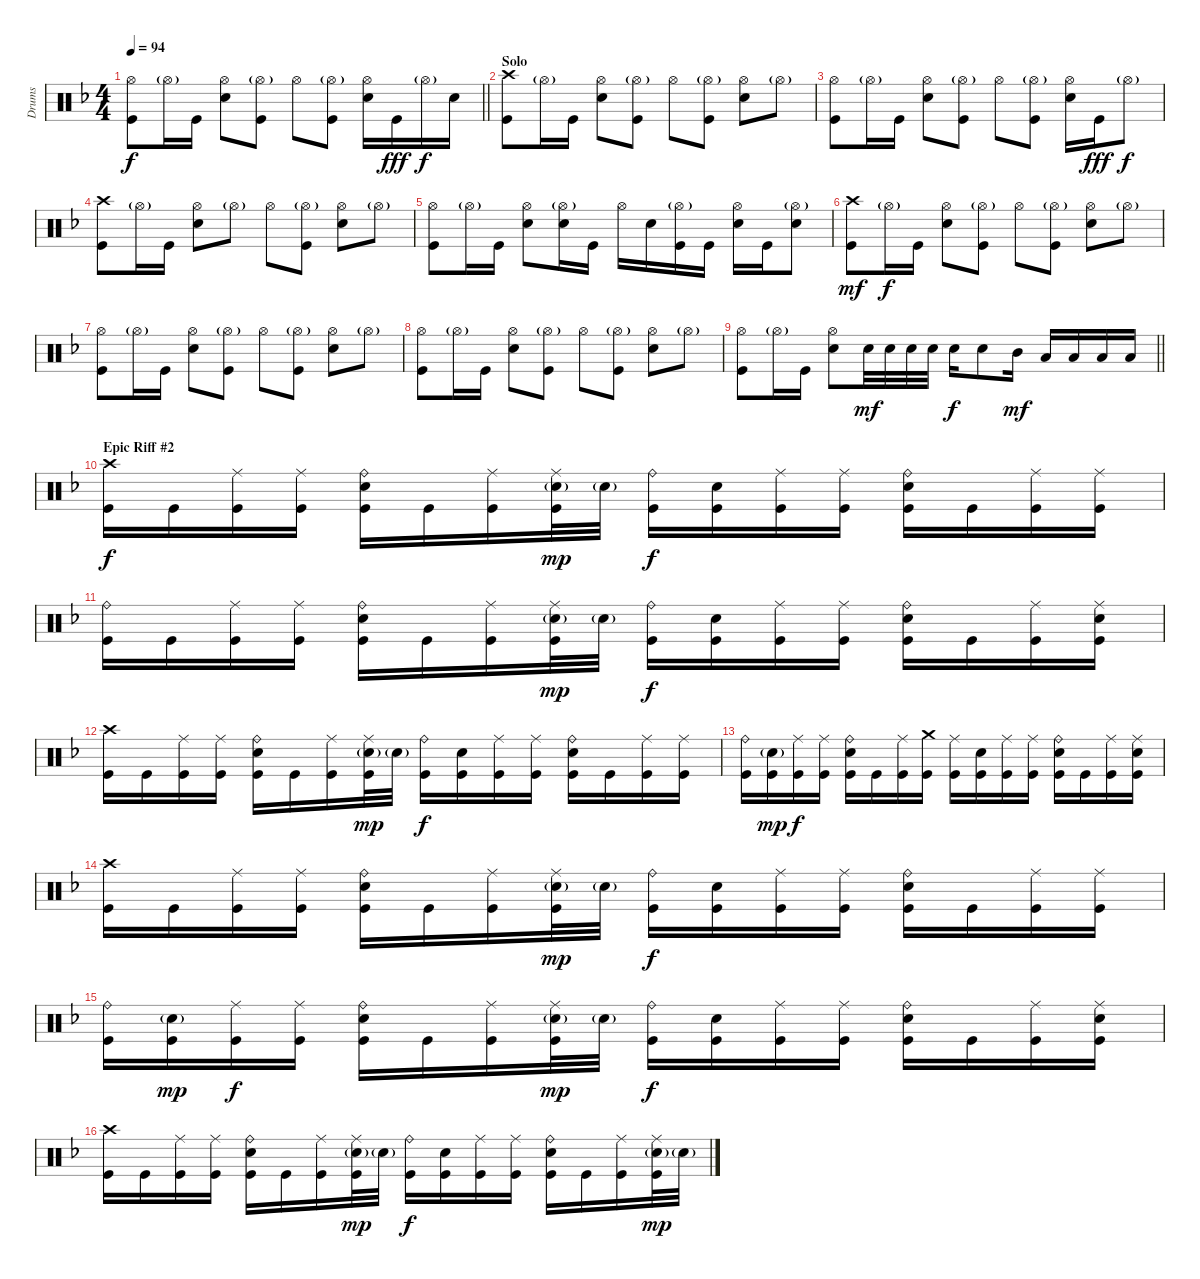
\track ("Drums" "Drums") {instrument percussion bank 10}
\staff {score}
\articulation defaults
\ts (4 4)
\tempo 94
\clef neutral
\barLineRight lightlight
\ks dminor
("Hi-Hat (open)" "Kick (hit)").8{dy f} "Hi-Hat (open)"{g}.16 "Kick (hit)".16 ("Hi-Hat (open)" "Electric Snare (hit)").8 ("Hi-Hat (open)"{g} "Kick (hit)").8 "Hi-Hat (open)".8 ("Hi-Hat (open)"{g} "Kick (hit)").8 ("Hi-Hat (open)" "Electric Snare (hit)").16 "Kick (hit)".16{dy fff} "Hi-Hat (open)"{g}.16{dy f} "Electric Snare (hit)".16 |
\section ("" "Solo")
("Crash high (hit)" "Kick (hit)").8 "Hi-Hat (open)"{g}.16 "Kick (hit)".16 ("Hi-Hat (open)" "Electric Snare (hit)").8 ("Hi-Hat (open)"{g} "Kick (hit)").8 "Hi-Hat (open)".8 ("Hi-Hat (open)"{g} "Kick (hit)").8 ("Hi-Hat (open)" "Electric Snare (hit)").8 "Hi-Hat (open)"{g}.8 |
("Hi-Hat (open)" "Kick (hit)").8 "Hi-Hat (open)"{g}.16 "Kick (hit)".16 ("Hi-Hat (open)" "Electric Snare (hit)").8 ("Hi-Hat (open)"{g} "Kick (hit)").8 "Hi-Hat (open)".8 ("Hi-Hat (open)"{g} "Kick (hit)").8 ("Hi-Hat (open)" "Electric Snare (hit)").16 "Kick (hit)".16{dy fff} "Hi-Hat (open)"{g}.8{dy f} |
("Crash high (hit)" "Kick (hit)").8 "Hi-Hat (open)"{g}.16 "Kick (hit)".16 ("Hi-Hat (open)" "Electric Snare (hit)").8 "Hi-Hat (open)"{g}.8 "Hi-Hat (open)".8 ("Hi-Hat (open)"{g} "Kick (hit)").8 ("Hi-Hat (open)" "Electric Snare (hit)").8 "Hi-Hat (open)"{g}.8 |
("Hi-Hat (open)" "Kick (hit)").8 "Hi-Hat (open)"{g}.16 "Kick (hit)".16 ("Hi-Hat (open)" "Electric Snare (hit)").8 ("Hi-Hat (open)"{g} "Electric Snare (hit)").16 "Kick (hit)".16 "Hi-Hat (open)".16 "Electric Snare (hit)".16 ("Hi-Hat (open)"{g} "Kick (hit)").16 "Kick (hit)".16 ("Hi-Hat (open)" "Electric Snare (hit)").16 "Kick (hit)".16 ("Hi-Hat (open)"{g} "Electric Snare (hit)").8 |
("Crash high (hit)" "Kick (hit)").8{dy mf} "Hi-Hat (open)"{g}.16{dy f} "Kick (hit)".16 ("Hi-Hat (open)" "Electric Snare (hit)").8 ("Hi-Hat (open)"{g} "Kick (hit)").8 "Hi-Hat (open)".8 ("Hi-Hat (open)"{g} "Kick (hit)").8 ("Hi-Hat (open)" "Electric Snare (hit)").8 "Hi-Hat (open)"{g}.8 |
("Hi-Hat (open)" "Kick (hit)").8 "Hi-Hat (open)"{g}.16 "Kick (hit)".16 ("Hi-Hat (open)" "Electric Snare (hit)").8 ("Hi-Hat (open)"{g} "Kick (hit)").8 "Hi-Hat (open)".8 ("Hi-Hat (open)"{g} "Kick (hit)").8 ("Hi-Hat (open)" "Electric Snare (hit)").8 "Hi-Hat (open)"{g}.8 |
("Hi-Hat (open)" "Kick (hit)").8 "Hi-Hat (open)"{g}.16 "Kick (hit)".16 ("Hi-Hat (open)" "Electric Snare (hit)").8 ("Hi-Hat (open)"{g} "Kick (hit)").8 "Hi-Hat (open)".8 ("Hi-Hat (open)"{g} "Kick (hit)").8 ("Hi-Hat (open)" "Electric Snare (hit)").8 "Hi-Hat (open)"{g}.8 |
\barLineRight lightlight
("Hi-Hat (open)" "Kick (hit)").8 "Hi-Hat (open)"{g}.16 "Kick (hit)".16 ("Hi-Hat (open)" "Electric Snare (hit)").8 "Electric Snare (hit)".32{dy mf} "Electric Snare (hit)".32 "Electric Snare (hit)".32 "Electric Snare (hit)".32 "Electric Snare (hit)".16{dy f} "Electric Snare (hit)".8 "Mid Tom (hit)".16{dy mf} "Low Tom (hit)".16 "Low Tom (hit)".16 "Low Floor Tom (hit)".16 "Low Floor Tom (hit)".16 |
\section ("" "Epic Riff #2")
("Crash high (hit)" "Kick (hit)").16{dy f} "Kick (hit)".16 ("Ride (middle)" "Kick (hit)").16 ("Ride (middle)" "Kick (hit)").16 ("Ride (bell)" "Electric Snare (hit)" "Kick (hit)").16 "Kick (hit)".16 ("Ride (middle)" "Kick (hit)").16 ("Ride (middle)" "Electric Snare (hit)"{g} "Kick (hit)").32{dy mp} "Electric Snare (hit)"{g}.32 ("Ride (bell)" "Kick (hit)").16{dy f} ("Electric Snare (hit)" "Kick (hit)").16 ("Ride (middle)" "Kick (hit)").16 ("Ride (middle)" "Kick (hit)").16 ("Ride (bell)" "Electric Snare (hit)" "Kick (hit)").16 "Kick (hit)".16 ("Ride (middle)" "Kick (hit)").16 ("Ride (middle)" "Kick (hit)").16 |
("Ride (bell)" "Kick (hit)").16 "Kick (hit)".16 ("Ride (middle)" "Kick (hit)").16 ("Ride (middle)" "Kick (hit)").16 ("Ride (bell)" "Electric Snare (hit)" "Kick (hit)").16 "Kick (hit)".16 ("Ride (middle)" "Kick (hit)").16 ("Ride (middle)" "Electric Snare (hit)"{g} "Kick (hit)").32{dy mp} "Electric Snare (hit)"{g}.32 ("Ride (bell)" "Kick (hit)").16{dy f} ("Electric Snare (hit)" "Kick (hit)").16 ("Ride (middle)" "Kick (hit)").16 ("Ride (middle)" "Kick (hit)").16 ("Ride (bell)" "Electric Snare (hit)" "Kick (hit)").16 "Kick (hit)".16 ("Ride (middle)" "Kick (hit)").16 ("Ride (middle)" "Electric Snare (hit)" "Kick (hit)").16 |
("Crash high (hit)" "Kick (hit)").16 "Kick (hit)".16 ("Ride (middle)" "Kick (hit)").16 ("Ride (middle)" "Kick (hit)").16 ("Ride (bell)" "Electric Snare (hit)" "Kick (hit)").16 "Kick (hit)".16 ("Ride (middle)" "Kick (hit)").16 ("Ride (middle)" "Electric Snare (hit)"{g} "Kick (hit)").32{dy mp} "Electric Snare (hit)"{g}.32 ("Ride (bell)" "Kick (hit)").16{dy f} ("Electric Snare (hit)" "Kick (hit)").16 ("Ride (middle)" "Kick (hit)").16 ("Ride (middle)" "Kick (hit)").16 ("Ride (bell)" "Electric Snare (hit)" "Kick (hit)").16 "Kick (hit)".16 ("Ride (middle)" "Kick (hit)").16 ("Ride (middle)" "Kick (hit)").16 |
("Ride (bell)" "Kick (hit)").16 ("Electric Snare (hit)"{g} "Kick (hit)").16{dy mp} ("Ride (middle)" "Kick (hit)").16{dy f} ("Ride (middle)" "Kick (hit)").16 ("Ride (bell)" "Electric Snare (hit)" "Kick (hit)").16 "Kick (hit)".16 ("Ride (middle)" "Kick (hit)").16 ("Crash medium (hit)" "Kick (hit)").16 ("Ride (middle)" "Kick (hit)").16 ("Electric Snare (hit)" "Kick (hit)").16 ("Ride (middle)" "Kick (hit)").16 ("Ride (middle)" "Kick (hit)").16 ("Ride (bell)" "Electric Snare (hit)" "Kick (hit)").16 "Kick (hit)".16 ("Ride (middle)" "Kick (hit)").16 ("Ride (middle)" "Electric Snare (hit)" "Kick (hit)").16 |
("Crash high (hit)" "Kick (hit)").16 "Kick (hit)".16 ("Ride (middle)" "Kick (hit)").16 ("Ride (middle)" "Kick (hit)").16 ("Ride (bell)" "Electric Snare (hit)" "Kick (hit)").16 "Kick (hit)".16 ("Ride (middle)" "Kick (hit)").16 ("Ride (middle)" "Electric Snare (hit)"{g} "Kick (hit)").32{dy mp} "Electric Snare (hit)"{g}.32 ("Ride (bell)" "Kick (hit)").16{dy f} ("Electric Snare (hit)" "Kick (hit)").16 ("Ride (middle)" "Kick (hit)").16 ("Ride (middle)" "Kick (hit)").16 ("Ride (bell)" "Electric Snare (hit)" "Kick (hit)").16 "Kick (hit)".16 ("Ride (middle)" "Kick (hit)").16 ("Ride (middle)" "Kick (hit)").16 |
("Ride (bell)" "Kick (hit)").16 ("Electric Snare (hit)"{g} "Kick (hit)").16{dy mp} ("Ride (middle)" "Kick (hit)").16{dy f} ("Ride (middle)" "Kick (hit)").16 ("Ride (bell)" "Electric Snare (hit)" "Kick (hit)").16 "Kick (hit)".16 ("Ride (middle)" "Kick (hit)").16 ("Ride (middle)" "Electric Snare (hit)"{g} "Kick (hit)").32{dy mp} "Electric Snare (hit)"{g}.32 ("Ride (bell)" "Kick (hit)").16{dy f} ("Electric Snare (hit)" "Kick (hit)").16 ("Ride (middle)" "Kick (hit)").16 ("Ride (middle)" "Kick (hit)").16 ("Ride (bell)" "Electric Snare (hit)" "Kick (hit)").16 "Kick (hit)".16 ("Ride (middle)" "Kick (hit)").16 ("Ride (middle)" "Electric Snare (hit)" "Kick (hit)").16 |
("Crash high (hit)" "Kick (hit)").16 "Kick (hit)".16 ("Ride (middle)" "Kick (hit)").16 ("Ride (middle)" "Kick (hit)").16 ("Ride (bell)" "Electric Snare (hit)" "Kick (hit)").16 "Kick (hit)".16 ("Ride (middle)" "Kick (hit)").16 ("Ride (middle)" "Electric Snare (hit)"{g} "Kick (hit)").32{dy mp} "Electric Snare (hit)"{g}.32 ("Ride (bell)" "Kick (hit)").16{dy f} ("Electric Snare (hit)" "Kick (hit)").16 ("Ride (middle)" "Kick (hit)").16 ("Ride (middle)" "Kick (hit)").16 ("Ride (bell)" "Electric Snare (hit)" "Kick (hit)").16 "Kick (hit)".16 ("Ride (middle)" "Kick (hit)").16 ("Ride (middle)" "Electric Snare (hit)"{g} "Kick (hit)").32{dy mp} "Electric Snare (hit)"{g}.32
